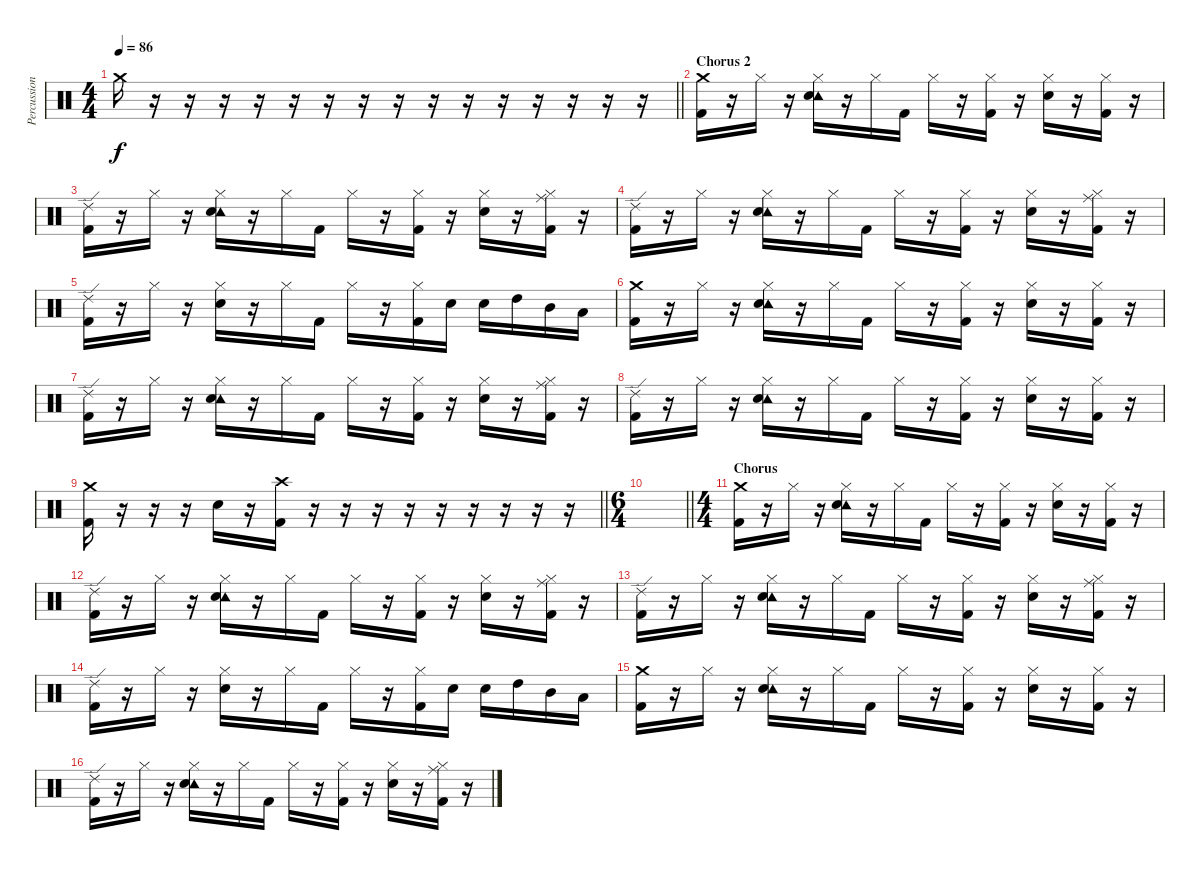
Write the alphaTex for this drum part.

\track ("Percussion" "Percussion") {instrument percussion}
\staff {score}
\articulation defaults
\ts (4 4)
\tempo 86
\clef neutral
\barLineRight lightlight
\ks c "Crash medium (hit)".16{dy f}
r.16 r.16 r.16 r.16 r.16 r.16 r.16 r.16 r.16 r.16 r.16 r.16 r.16 r.16 r.16 |
\section ("" "Chorus 2")
("Crash medium (hit)" "Kick (hit) 2").16 r.16 "Hi-Hat (closed)".16 r.16 ("Hi-Hat (closed)" "Tambourine (hit)" "Snare (hit) 2").16 r.16 "Hi-Hat (closed)".16 "Kick (hit) 2".16 "Hi-Hat (closed)".16 r.16 ("Hi-Hat (closed)" "Kick (hit) 2").16 r.16 ("Hi-Hat (closed)" "Snare (hit) 2").16 r.16 ("Hi-Hat (closed)" "Kick (hit) 2").16 r.16 |
("Ride (edge) 2" "Kick (hit) 2").16 r.16 "Hi-Hat (closed)".16 r.16 ("Hi-Hat (closed)" "Tambourine (hit)" "Snare (hit) 2").16 r.16 "Hi-Hat (closed)".16 "Kick (hit) 2".16 "Hi-Hat (closed)".16 r.16 ("Hi-Hat (closed)" "Kick (hit) 2").16 r.16 ("Hi-Hat (closed)" "Snare (hit) 2").16 r.16 ("Ride (middle)" "Hi-Hat (closed)" "Kick (hit) 2").16 r.16 |
("Ride (edge) 2" "Kick (hit) 2").16 r.16 "Hi-Hat (closed)".16 r.16 ("Hi-Hat (closed)" "Tambourine (hit)" "Snare (hit) 2").16 r.16 "Hi-Hat (closed)".16 "Kick (hit) 2".16 "Hi-Hat (closed)".16 r.16 ("Hi-Hat (closed)" "Kick (hit) 2").16 r.16 ("Hi-Hat (closed)" "Snare (hit) 2").16 r.16 ("Ride (middle)" "Hi-Hat (closed)" "Kick (hit) 2").16 r.16 |
("Ride (edge) 2" "Kick (hit) 2").16 r.16 "Hi-Hat (closed)".16 r.16 ("Hi-Hat (closed)" "Snare (hit) 2").16 r.16 "Hi-Hat (closed)".16 "Kick (hit) 2".16 "Hi-Hat (closed)".16 r.16 ("Hi-Hat (closed)" "Kick (hit) 2").16 "Snare (hit) 2".16 "Snare (hit) 2".16 "High Tom (hit)".16 "Mid Tom (hit)".16 "Low Tom (hit)".16 |
("Crash medium (hit)" "Kick (hit) 2").16 r.16 "Hi-Hat (closed)".16 r.16 ("Hi-Hat (closed)" "Tambourine (hit)" "Snare (hit) 2").16 r.16 "Hi-Hat (closed)".16 "Kick (hit) 2".16 "Hi-Hat (closed)".16 r.16 ("Hi-Hat (closed)" "Kick (hit) 2").16 r.16 ("Hi-Hat (closed)" "Snare (hit) 2").16 r.16 ("Hi-Hat (closed)" "Kick (hit) 2").16 r.16 |
("Ride (edge) 2" "Kick (hit) 2").16 r.16 "Hi-Hat (closed)".16 r.16 ("Hi-Hat (closed)" "Tambourine (hit)" "Snare (hit) 2").16 r.16 "Hi-Hat (closed)".16 "Kick (hit) 2".16 "Hi-Hat (closed)".16 r.16 ("Hi-Hat (closed)" "Kick (hit) 2").16 r.16 ("Hi-Hat (closed)" "Snare (hit) 2").16 r.16 ("Ride (middle)" "Hi-Hat (closed)" "Kick (hit) 2").16 r.16 |
("Ride (edge) 2" "Kick (hit) 2").16 r.16 "Hi-Hat (closed)".16 r.16 ("Hi-Hat (closed)" "Tambourine (hit)" "Snare (hit) 2").16 r.16 "Hi-Hat (closed)".16 "Kick (hit) 2".16 "Hi-Hat (closed)".16 r.16 ("Hi-Hat (closed)" "Kick (hit) 2").16 r.16 ("Hi-Hat (closed)" "Snare (hit) 2").16 r.16 ("Hi-Hat (closed)" "Kick (hit) 2").16 r.16 |
\barLineRight lightlight
("Crash medium (hit)" "Kick (hit) 2").16 r.16 r.16 r.16 "Snare (hit) 2".16 r.16 ("Crash high (hit)" "Kick (hit) 2").16 r.16 r.16 r.16 r.16 r.16 r.16 r.16 r.16 r.16 |
\ts (6 4)
\barLineRight lightlight
|
\ts (4 4)
\section ("" "Chorus")
("Crash medium (hit)" "Kick (hit) 2").16 r.16 "Hi-Hat (closed)".16 r.16 ("Hi-Hat (closed)" "Tambourine (hit)" "Snare (hit) 2").16 r.16 "Hi-Hat (closed)".16 "Kick (hit) 2".16 "Hi-Hat (closed)".16 r.16 ("Hi-Hat (closed)" "Kick (hit) 2").16 r.16 ("Hi-Hat (closed)" "Snare (hit) 2").16 r.16 ("Hi-Hat (closed)" "Kick (hit) 2").16 r.16 |
("Ride (edge) 2" "Kick (hit) 2").16 r.16 "Hi-Hat (closed)".16 r.16 ("Hi-Hat (closed)" "Tambourine (hit)" "Snare (hit) 2").16 r.16 "Hi-Hat (closed)".16 "Kick (hit) 2".16 "Hi-Hat (closed)".16 r.16 ("Hi-Hat (closed)" "Kick (hit) 2").16 r.16 ("Hi-Hat (closed)" "Snare (hit) 2").16 r.16 ("Ride (middle)" "Hi-Hat (closed)" "Kick (hit) 2").16 r.16 |
("Ride (edge) 2" "Kick (hit) 2").16 r.16 "Hi-Hat (closed)".16 r.16 ("Hi-Hat (closed)" "Tambourine (hit)" "Snare (hit) 2").16 r.16 "Hi-Hat (closed)".16 "Kick (hit) 2".16 "Hi-Hat (closed)".16 r.16 ("Hi-Hat (closed)" "Kick (hit) 2").16 r.16 ("Hi-Hat (closed)" "Snare (hit) 2").16 r.16 ("Ride (middle)" "Hi-Hat (closed)" "Kick (hit) 2").16 r.16 |
("Ride (edge) 2" "Kick (hit) 2").16 r.16 "Hi-Hat (closed)".16 r.16 ("Hi-Hat (closed)" "Snare (hit) 2").16 r.16 "Hi-Hat (closed)".16 "Kick (hit) 2".16 "Hi-Hat (closed)".16 r.16 ("Hi-Hat (closed)" "Kick (hit) 2").16 "Snare (hit) 2".16 "Snare (hit) 2".16 "High Tom (hit)".16 "Mid Tom (hit)".16 "Low Tom (hit)".16 |
("Crash medium (hit)" "Kick (hit) 2").16 r.16 "Hi-Hat (closed)".16 r.16 ("Hi-Hat (closed)" "Tambourine (hit)" "Snare (hit) 2").16 r.16 "Hi-Hat (closed)".16 "Kick (hit) 2".16 "Hi-Hat (closed)".16 r.16 ("Hi-Hat (closed)" "Kick (hit) 2").16 r.16 ("Hi-Hat (closed)" "Snare (hit) 2").16 r.16 ("Hi-Hat (closed)" "Kick (hit) 2").16 r.16 |
("Ride (edge) 2" "Kick (hit) 2").16 r.16 "Hi-Hat (closed)".16 r.16 ("Hi-Hat (closed)" "Tambourine (hit)" "Snare (hit) 2").16 r.16 "Hi-Hat (closed)".16 "Kick (hit) 2".16 "Hi-Hat (closed)".16 r.16 ("Hi-Hat (closed)" "Kick (hit) 2").16 r.16 ("Hi-Hat (closed)" "Snare (hit) 2").16 r.16 ("Ride (middle)" "Hi-Hat (closed)" "Kick (hit) 2").16 r.16
